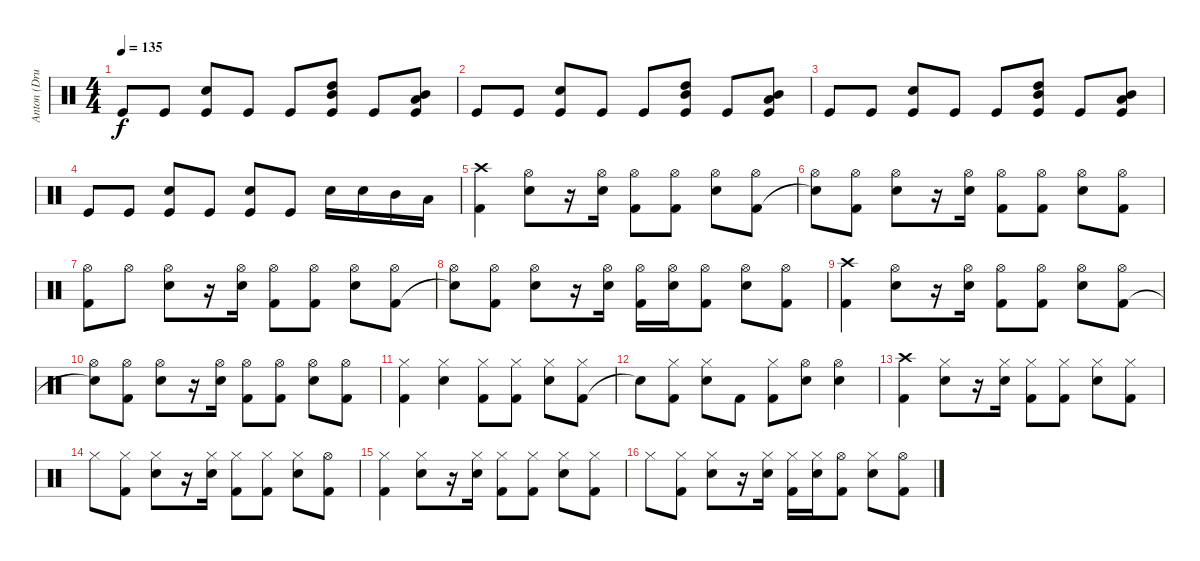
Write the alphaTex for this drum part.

\track ("Anton (Drum)" "Anton (Dru") {instrument percussion}
\staff {score}
\articulation defaults
\ts (4 4)
\tempo 135
\clef neutral
\ks c "Kick (hit)".8{dy f} "Kick (hit)".8
("Kick (hit)" "Snare (hit) 2").8 "Kick (hit)".8 "Kick (hit)".8 ("Kick (hit)" "High Tom (hit)" "Mid Tom (hit)").8 "Kick (hit)".8 ("Kick (hit)" "Low Tom (hit)" "Mid Tom (hit)").8 |
"Kick (hit)".8 "Kick (hit)".8 ("Kick (hit)" "Snare (hit) 2").8 "Kick (hit)".8 "Kick (hit)".8 ("Kick (hit)" "High Tom (hit)" "Mid Tom (hit)").8 "Kick (hit)".8 ("Kick (hit)" "Low Tom (hit)" "Mid Tom (hit)").8 |
"Kick (hit)".8 "Kick (hit)".8 ("Kick (hit)" "Snare (hit) 2").8 "Kick (hit)".8 "Kick (hit)".8 ("Kick (hit)" "High Tom (hit)" "Mid Tom (hit)").8 "Kick (hit)".8 ("Kick (hit)" "Low Tom (hit)" "Mid Tom (hit)").8 |
"Kick (hit)".8 "Kick (hit)".8 ("Kick (hit)" "Snare (hit) 2").8 "Kick (hit)".8 ("Kick (hit)" "Snare (hit) 2").8 "Kick (hit)".8 "Snare (hit) 2".16 "Snare (hit) 2".16 "Mid Tom (hit)".16 "Low Tom (hit)".16 |
("Crash high (hit)" "Kick (hit) 2").4 ("Snare (hit) 2" "Hi-Hat (open)").8 r.16 ("Snare (hit) 2" "Hi-Hat (open)").16 ("Kick (hit) 2" "Hi-Hat (open)").8 ("Kick (hit) 2" "Hi-Hat (open)").8 ("Snare (hit) 2" "Hi-Hat (open)").8 ("Kick (hit) 2" "Hi-Hat (open)").8 |
("Snare (hit)"{t} "Hi-Hat (open)").8 ("Kick (hit) 2" "Hi-Hat (open)").8 ("Snare (hit) 2" "Hi-Hat (open)").8 r.16 ("Snare (hit) 2" "Hi-Hat (open)").16 ("Kick (hit) 2" "Hi-Hat (open)").8 ("Kick (hit) 2" "Hi-Hat (open)").8 ("Snare (hit) 2" "Hi-Hat (open)").8 ("Kick (hit) 2" "Hi-Hat (open)").8 |
("Kick (hit) 2" "Hi-Hat (open)").8 "Hi-Hat (open)".8 ("Snare (hit) 2" "Hi-Hat (open)").8 r.16 ("Snare (hit) 2" "Hi-Hat (open)").16 ("Kick (hit) 2" "Hi-Hat (open)").8 ("Kick (hit) 2" "Hi-Hat (open)").8 ("Snare (hit) 2" "Hi-Hat (open)").8 ("Kick (hit) 2" "Hi-Hat (open)").8 |
("Snare (hit)"{t} "Hi-Hat (open)").8 ("Kick (hit) 2" "Hi-Hat (open)").8 ("Snare (hit) 2" "Hi-Hat (open)").8 r.16 ("Snare (hit) 2" "Hi-Hat (open)").16 ("Kick (hit) 2" "Hi-Hat (open)").16 ("Snare (hit) 2" "Hi-Hat (open)").16 ("Kick (hit) 2" "Hi-Hat (open)").8 ("Snare (hit) 2" "Hi-Hat (open)").8 ("Kick (hit) 2" "Hi-Hat (open)").8 |
("Crash high (hit)" "Kick (hit) 2").4 ("Snare (hit) 2" "Hi-Hat (open)").8 r.16 ("Snare (hit) 2" "Hi-Hat (open)").16 ("Kick (hit) 2" "Hi-Hat (open)").8 ("Kick (hit) 2" "Hi-Hat (open)").8 ("Snare (hit) 2" "Hi-Hat (open)").8 ("Kick (hit) 2" "Hi-Hat (open)").8 |
("Snare (hit)"{t} "Hi-Hat (open)").8 ("Kick (hit) 2" "Hi-Hat (open)").8 ("Snare (hit) 2" "Hi-Hat (open)").8 r.16 ("Snare (hit) 2" "Hi-Hat (open)").16 ("Kick (hit) 2" "Hi-Hat (open)").8 ("Kick (hit) 2" "Hi-Hat (open)").8 ("Snare (hit) 2" "Hi-Hat (open)").8 ("Kick (hit) 2" "Hi-Hat (open)").8 |
("Kick (hit) 2" "Hi-Hat (closed)").4 ("Snare (hit) 2" "Hi-Hat (closed)").4 ("Kick (hit) 2" "Hi-Hat (closed)").8 ("Kick (hit) 2" "Hi-Hat (closed)").8 ("Snare (hit) 2" "Hi-Hat (closed)").8 ("Kick (hit) 2" "Hi-Hat (closed)").8 |
"Snare (hit)"{t}.8 ("Kick (hit) 2" "Hi-Hat (closed)").8 ("Snare (hit) 2" "Hi-Hat (closed)").8 "Kick (hit) 2".8 ("Kick (hit) 2" "Hi-Hat (closed)").8 ("Snare (hit) 2" "Hi-Hat (open)").8 ("Snare (hit) 2" "Hi-Hat (open)").4 |
("Crash high (hit)" "Kick (hit) 2").4 ("Snare (hit) 2" "Hi-Hat (closed)").8 r.16 ("Snare (hit) 2" "Hi-Hat (closed)").16 ("Kick (hit) 2" "Hi-Hat (closed)").8 ("Kick (hit) 2" "Hi-Hat (closed)").8 ("Snare (hit) 2" "Hi-Hat (closed)").8 ("Kick (hit) 2" "Hi-Hat (closed)").8 |
"Hi-Hat (closed)".8 ("Kick (hit) 2" "Hi-Hat (closed)").8 ("Snare (hit) 2" "Hi-Hat (closed)").8 r.16 ("Snare (hit) 2" "Hi-Hat (closed)").16 ("Kick (hit) 2" "Hi-Hat (closed)").8 ("Kick (hit) 2" "Hi-Hat (closed)").8 ("Snare (hit) 2" "Hi-Hat (closed)").8 ("Kick (hit) 2" "Hi-Hat (open)").8 |
("Kick (hit) 2" "Hi-Hat (closed)").4 ("Snare (hit) 2" "Hi-Hat (closed)").8 r.16 ("Snare (hit) 2" "Hi-Hat (closed)").16 ("Kick (hit) 2" "Hi-Hat (closed)").8 ("Kick (hit) 2" "Hi-Hat (closed)").8 ("Snare (hit) 2" "Hi-Hat (closed)").8 ("Kick (hit) 2" "Hi-Hat (closed)").8 |
"Hi-Hat (closed)".8 ("Kick (hit) 2" "Hi-Hat (closed)").8 ("Snare (hit) 2" "Hi-Hat (closed)").8 r.16 ("Snare (hit) 2" "Hi-Hat (closed)").16 ("Kick (hit) 2" "Hi-Hat (closed)").16 ("Snare (hit) 2" "Hi-Hat (closed)").16 ("Kick (hit) 2" "Hi-Hat (open)").8 ("Snare (hit) 2" "Hi-Hat (closed)").8 ("Kick (hit) 2" "Hi-Hat (open)").8
